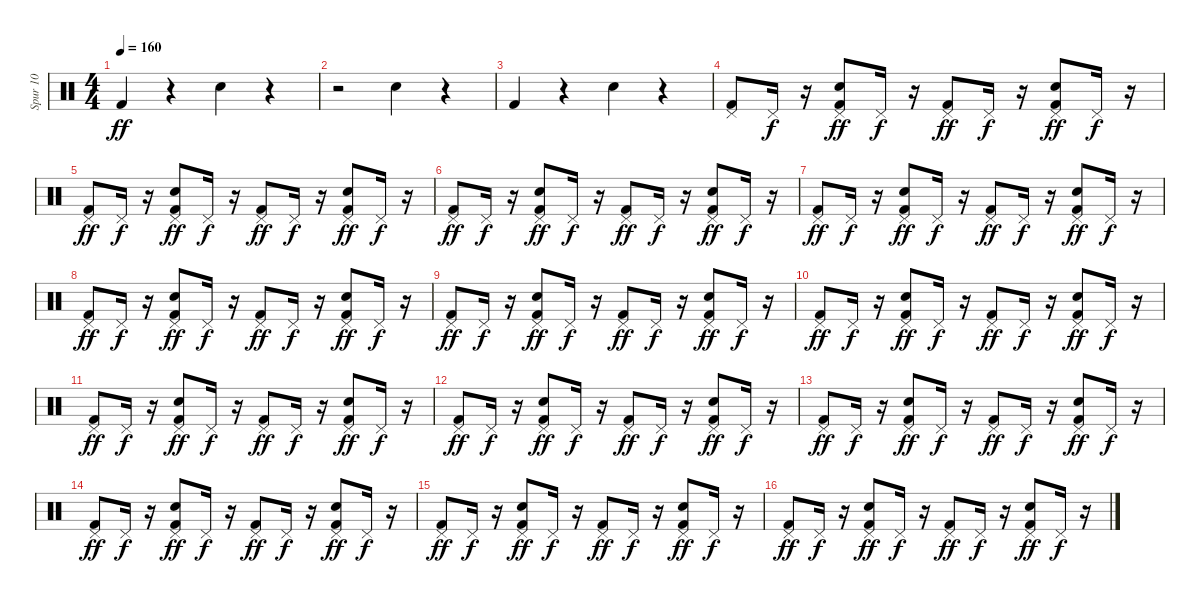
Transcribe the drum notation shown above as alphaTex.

\track ("Spur 10" "Spur 10") {instrument percussion}
\staff {score}
\articulation defaults
\ts (4 4)
\tempo 160
\clef neutral
\ks c "Kick (hit) 2".4{dy ff}
r.4 "Snare (hit) 2".4 r.4 |
r.2 "Snare (hit) 2".4 r.4 |
"Kick (hit) 2".4 r.4 "Snare (hit) 2".4 r.4 |
("Kick (hit) 2" "Pedal Hi-Hat (hit)").8 "Pedal Hi-Hat (hit)".16{dy f} r.16 ("Kick (hit) 2" "Snare (hit) 2" "Pedal Hi-Hat (hit)").8{dy ff} "Pedal Hi-Hat (hit)".16{dy f} r.16 ("Kick (hit) 2" "Pedal Hi-Hat (hit)").8{dy ff} "Pedal Hi-Hat (hit)".16{dy f} r.16 ("Snare (hit) 2" "Kick (hit) 2" "Pedal Hi-Hat (hit)").8{dy ff} "Pedal Hi-Hat (hit)".16{dy f} r.16 |
("Kick (hit) 2" "Pedal Hi-Hat (hit)").8{dy ff} "Pedal Hi-Hat (hit)".16{dy f} r.16 ("Kick (hit) 2" "Snare (hit) 2" "Pedal Hi-Hat (hit)").8{dy ff} "Pedal Hi-Hat (hit)".16{dy f} r.16 ("Kick (hit) 2" "Pedal Hi-Hat (hit)").8{dy ff} "Pedal Hi-Hat (hit)".16{dy f} r.16 ("Snare (hit) 2" "Kick (hit) 2" "Pedal Hi-Hat (hit)").8{dy ff} "Pedal Hi-Hat (hit)".16{dy f} r.16 |
("Kick (hit) 2" "Pedal Hi-Hat (hit)").8{dy ff} "Pedal Hi-Hat (hit)".16{dy f} r.16 ("Kick (hit) 2" "Snare (hit) 2" "Pedal Hi-Hat (hit)").8{dy ff} "Pedal Hi-Hat (hit)".16{dy f} r.16 ("Kick (hit) 2" "Pedal Hi-Hat (hit)").8{dy ff} "Pedal Hi-Hat (hit)".16{dy f} r.16 ("Snare (hit) 2" "Kick (hit) 2" "Pedal Hi-Hat (hit)").8{dy ff} "Pedal Hi-Hat (hit)".16{dy f} r.16 |
("Kick (hit) 2" "Pedal Hi-Hat (hit)").8{dy ff} "Pedal Hi-Hat (hit)".16{dy f} r.16 ("Snare (hit) 2" "Kick (hit) 2" "Pedal Hi-Hat (hit)").8{dy ff} "Pedal Hi-Hat (hit)".16{dy f} r.16 ("Kick (hit) 2" "Pedal Hi-Hat (hit)").8{dy ff} "Pedal Hi-Hat (hit)".16{dy f} r.16 ("Kick (hit) 2" "Snare (hit) 2" "Pedal Hi-Hat (hit)").8{dy ff} "Pedal Hi-Hat (hit)".16{dy f} r.16 |
("Kick (hit) 2" "Pedal Hi-Hat (hit)").8{dy ff} "Pedal Hi-Hat (hit)".16{dy f} r.16 ("Kick (hit) 2" "Snare (hit) 2" "Pedal Hi-Hat (hit)").8{dy ff} "Pedal Hi-Hat (hit)".16{dy f} r.16 ("Kick (hit) 2" "Pedal Hi-Hat (hit)").8{dy ff} "Pedal Hi-Hat (hit)".16{dy f} r.16 ("Kick (hit) 2" "Snare (hit) 2" "Pedal Hi-Hat (hit)").8{dy ff} "Pedal Hi-Hat (hit)".16{dy f} r.16 |
("Kick (hit) 2" "Pedal Hi-Hat (hit)").8{dy ff} "Pedal Hi-Hat (hit)".16{dy f} r.16 ("Kick (hit) 2" "Snare (hit) 2" "Pedal Hi-Hat (hit)").8{dy ff} "Pedal Hi-Hat (hit)".16{dy f} r.16 ("Kick (hit) 2" "Pedal Hi-Hat (hit)").8{dy ff} "Pedal Hi-Hat (hit)".16{dy f} r.16 ("Snare (hit) 2" "Kick (hit) 2" "Pedal Hi-Hat (hit)").8{dy ff} "Pedal Hi-Hat (hit)".16{dy f} r.16 |
("Kick (hit) 2" "Pedal Hi-Hat (hit)").8{dy ff} "Pedal Hi-Hat (hit)".16{dy f} r.16 ("Snare (hit) 2" "Kick (hit) 2" "Pedal Hi-Hat (hit)").8{dy ff} "Pedal Hi-Hat (hit)".16{dy f} r.16 ("Kick (hit) 2" "Pedal Hi-Hat (hit)").8{dy ff} "Pedal Hi-Hat (hit)".16{dy f} r.16 ("Kick (hit) 2" "Snare (hit) 2" "Pedal Hi-Hat (hit)").8{dy ff} "Pedal Hi-Hat (hit)".16{dy f} r.16 |
("Kick (hit) 2" "Pedal Hi-Hat (hit)").8{dy ff} "Pedal Hi-Hat (hit)".16{dy f} r.16 ("Kick (hit) 2" "Snare (hit) 2" "Pedal Hi-Hat (hit)").8{dy ff} "Pedal Hi-Hat (hit)".16{dy f} r.16 ("Kick (hit) 2" "Pedal Hi-Hat (hit)").8{dy ff} "Pedal Hi-Hat (hit)".16{dy f} r.16 ("Kick (hit) 2" "Snare (hit) 2" "Pedal Hi-Hat (hit)").8{dy ff} "Pedal Hi-Hat (hit)".16{dy f} r.16 |
("Kick (hit) 2" "Pedal Hi-Hat (hit)").8{dy ff} "Pedal Hi-Hat (hit)".16{dy f} r.16 ("Snare (hit) 2" "Kick (hit) 2" "Pedal Hi-Hat (hit)").8{dy ff} "Pedal Hi-Hat (hit)".16{dy f} r.16 ("Kick (hit) 2" "Pedal Hi-Hat (hit)").8{dy ff} "Pedal Hi-Hat (hit)".16{dy f} r.16 ("Kick (hit) 2" "Snare (hit) 2" "Pedal Hi-Hat (hit)").8{dy ff} "Pedal Hi-Hat (hit)".16{dy f} r.16 |
("Kick (hit) 2" "Pedal Hi-Hat (hit)").8{dy ff} "Pedal Hi-Hat (hit)".16{dy f} r.16 ("Kick (hit) 2" "Snare (hit) 2" "Pedal Hi-Hat (hit)").8{dy ff} "Pedal Hi-Hat (hit)".16{dy f} r.16 ("Kick (hit) 2" "Pedal Hi-Hat (hit)").8{dy ff} "Pedal Hi-Hat (hit)".16{dy f} r.16 ("Kick (hit) 2" "Snare (hit) 2" "Pedal Hi-Hat (hit)").8{dy ff} "Pedal Hi-Hat (hit)".16{dy f} r.16 |
("Kick (hit) 2" "Pedal Hi-Hat (hit)").8{dy ff} "Pedal Hi-Hat (hit)".16{dy f} r.16 ("Kick (hit) 2" "Snare (hit) 2" "Pedal Hi-Hat (hit)").8{dy ff} "Pedal Hi-Hat (hit)".16{dy f} r.16 ("Kick (hit) 2" "Pedal Hi-Hat (hit)").8{dy ff} "Pedal Hi-Hat (hit)".16{dy f} r.16 ("Snare (hit) 2" "Kick (hit) 2" "Pedal Hi-Hat (hit)").8{dy ff} "Pedal Hi-Hat (hit)".16{dy f} r.16 |
("Kick (hit) 2" "Pedal Hi-Hat (hit)").8{dy ff} "Pedal Hi-Hat (hit)".16{dy f} r.16 ("Kick (hit) 2" "Snare (hit) 2" "Pedal Hi-Hat (hit)").8{dy ff} "Pedal Hi-Hat (hit)".16{dy f} r.16 ("Kick (hit) 2" "Pedal Hi-Hat (hit)").8{dy ff} "Pedal Hi-Hat (hit)".16{dy f} r.16 ("Kick (hit) 2" "Snare (hit) 2" "Pedal Hi-Hat (hit)").8{dy ff} "Pedal Hi-Hat (hit)".16{dy f} r.16 |
("Kick (hit) 2" "Pedal Hi-Hat (hit)").8{dy ff} "Pedal Hi-Hat (hit)".16{dy f} r.16 ("Kick (hit) 2" "Snare (hit) 2" "Pedal Hi-Hat (hit)").8{dy ff} "Pedal Hi-Hat (hit)".16{dy f} r.16 ("Kick (hit) 2" "Pedal Hi-Hat (hit)").8{dy ff} "Pedal Hi-Hat (hit)".16{dy f} r.16 ("Snare (hit) 2" "Kick (hit) 2" "Pedal Hi-Hat (hit)").8{dy ff} "Pedal Hi-Hat (hit)".16{dy f} r.16
